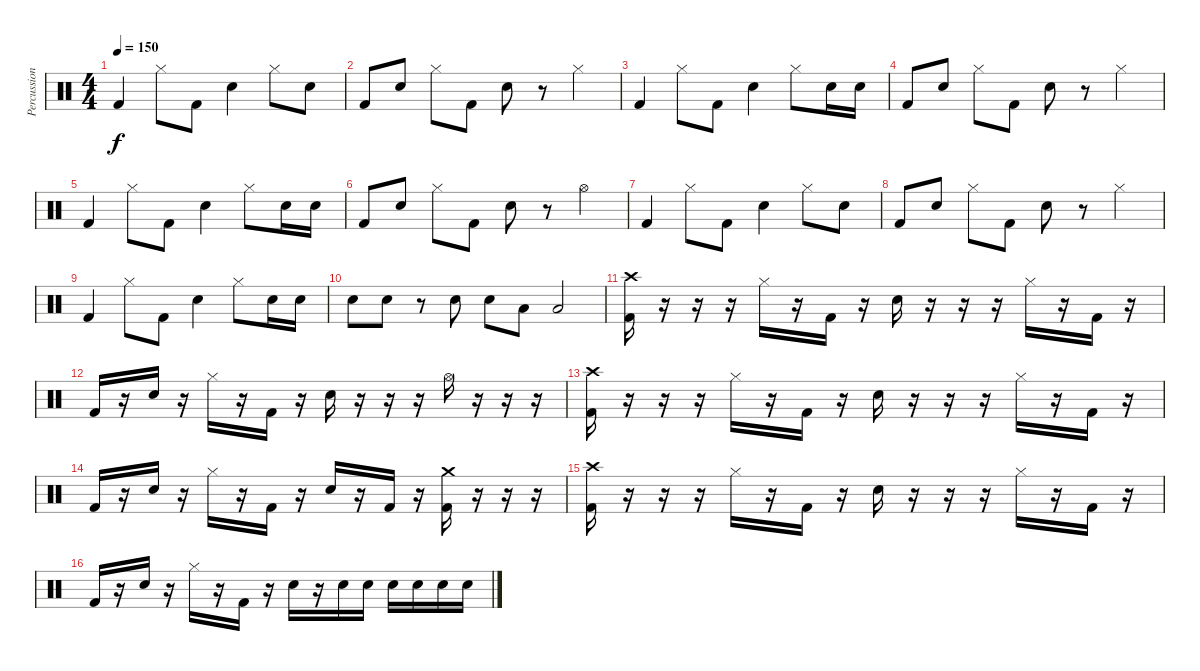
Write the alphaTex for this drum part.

\track ("Percussion" "Percussion") {instrument percussion}
\staff {score}
\articulation defaults
\ts (4 4)
\tempo 150
\clef neutral
\ks c "Kick (hit) 2".4{dy f} "Hi-Hat (closed)".8 "Kick (hit) 2".8 "Electric Snare (hit)".4 "Hi-Hat (closed)".8 "Electric Snare (hit)".8
|
"Kick (hit) 2".8 "Electric Snare (hit)".8 "Hi-Hat (closed)".8 "Kick (hit) 2".8 "Electric Snare (hit)".8 r.8 "Hi-Hat (closed)".4 |
"Kick (hit) 2".4 "Hi-Hat (closed)".8 "Kick (hit) 2".8 "Electric Snare (hit)".4 "Hi-Hat (closed)".8 "Electric Snare (hit)".16 "Electric Snare (hit)".16 |
"Kick (hit) 2".8 "Electric Snare (hit)".8 "Hi-Hat (closed)".8 "Kick (hit) 2".8 "Electric Snare (hit)".8 r.8 "Hi-Hat (closed)".4 |
"Kick (hit) 2".4 "Hi-Hat (closed)".8 "Kick (hit) 2".8 "Electric Snare (hit)".4 "Hi-Hat (closed)".8 "Electric Snare (hit)".16 "Electric Snare (hit)".16 |
"Kick (hit) 2".8 "Electric Snare (hit)".8 "Hi-Hat (closed)".8 "Kick (hit) 2".8 "Electric Snare (hit)".8 r.8 "Hi-Hat (open)".4 |
"Kick (hit) 2".4 "Hi-Hat (closed)".8 "Kick (hit) 2".8 "Electric Snare (hit)".4 "Hi-Hat (closed)".8 "Electric Snare (hit)".8 |
"Kick (hit) 2".8 "Electric Snare (hit)".8 "Hi-Hat (closed)".8 "Kick (hit) 2".8 "Electric Snare (hit)".8 r.8 "Hi-Hat (closed)".4 |
"Kick (hit) 2".4 "Hi-Hat (closed)".8 "Kick (hit) 2".8 "Electric Snare (hit)".4 "Hi-Hat (closed)".8 "Electric Snare (hit)".16 "Electric Snare (hit)".16 |
"Electric Snare (hit)".8 "Electric Snare (hit)".8 r.8 "Electric Snare (hit)".8 "Electric Snare (hit)".8 "Low Tom (hit)".8 "Low Floor Tom (hit)".2 |
("Crash high (hit)" "Kick (hit) 2").16 r.16 r.16 r.16 "Hi-Hat (closed)".16 r.16 "Kick (hit) 2".16 r.16 "Electric Snare (hit)".16 r.16 r.16 r.16 "Hi-Hat (closed)".16 r.16 "Kick (hit) 2".16 r.16 |
"Kick (hit) 2".16 r.16 "Electric Snare (hit)".16 r.16 "Hi-Hat (closed)".16 r.16 "Kick (hit) 2".16 r.16 "Electric Snare (hit)".16 r.16 r.16 r.16 "Hi-Hat (open)".16 r.16 r.16 r.16 |
("Crash high (hit)" "Kick (hit) 2").16 r.16 r.16 r.16 "Hi-Hat (closed)".16 r.16 "Kick (hit) 2".16 r.16 "Electric Snare (hit)".16 r.16 r.16 r.16 "Hi-Hat (closed)".16 r.16 "Kick (hit) 2".16 r.16 |
"Kick (hit) 2".16 r.16 "Electric Snare (hit)".16 r.16 "Hi-Hat (closed)".16 r.16 "Kick (hit) 2".16 r.16 "Electric Snare (hit)".16 r.16 "Kick (hit) 2".16 r.16 ("Crash medium (hit)" "Kick (hit) 2").16 r.16 r.16 r.16 |
("Crash high (hit)" "Kick (hit) 2").16 r.16 r.16 r.16 "Hi-Hat (closed)".16 r.16 "Kick (hit) 2".16 r.16 "Electric Snare (hit)".16 r.16 r.16 r.16 "Hi-Hat (closed)".16 r.16 "Kick (hit) 2".16 r.16 |
"Kick (hit) 2".16 r.16 "Electric Snare (hit)".16 r.16 "Hi-Hat (closed)".16 r.16 "Kick (hit) 2".16 r.16 "Electric Snare (hit)".16 r.16 "Electric Snare (hit)".16 "Electric Snare (hit)".16 "Electric Snare (hit)".16 "Electric Snare (hit)".16 "Electric Snare (hit)".16 "Electric Snare (hit)".16
